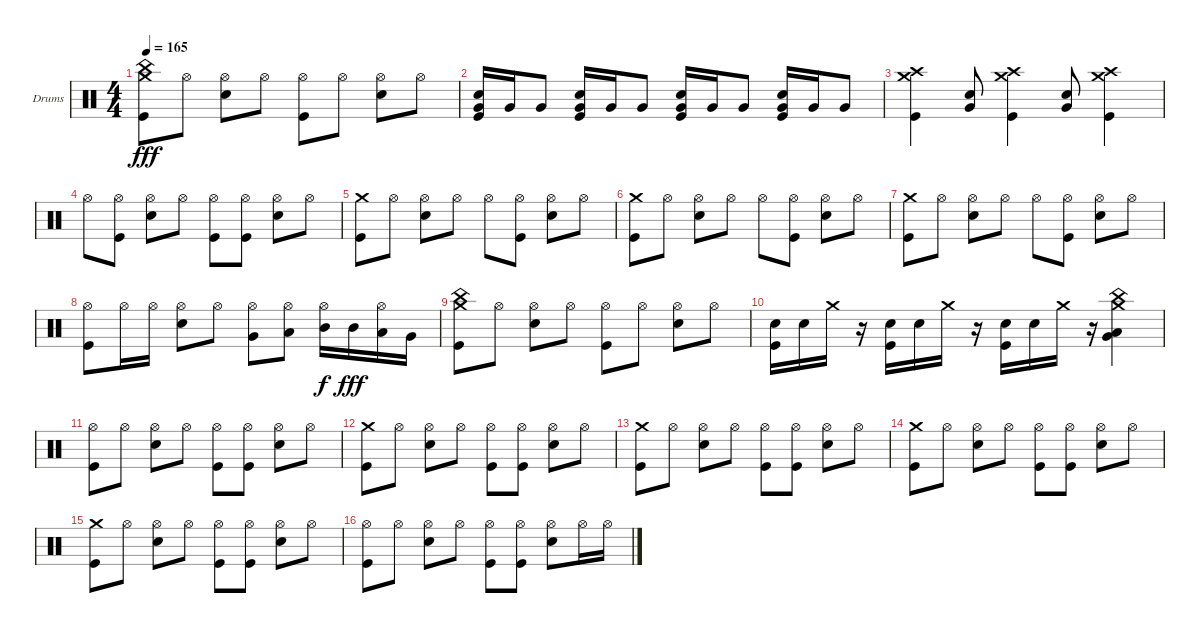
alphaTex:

\defaultSystemsLayout 4
\bracketExtendMode groupsimilarinstruments
\firstSystemTrackNameOrientation horizontal
\otherSystemsTrackNameOrientation horizontal
\track ("Drumkit" "Drums") {instrument percussion}
\staff {score}
\articulation defaults
\ts (4 4)
\tempo 165
\clef neutral
\ks c
("China (hit)" "Crash medium (hit)" "Kick (hit)").8{dy fff} "Hi-Hat (open)".8 ("Hi-Hat (open)" "Snare (hit) 2").8 "Hi-Hat (open)".8 ("Hi-Hat (open)" "Kick (hit)").8 "Hi-Hat (open)".8 ("Hi-Hat (open)" "Snare (hit) 2").8 "Hi-Hat (open)".8 |
("Very Low Tom (hit)" "Snare (hit) 2" "Kick (hit)").16 "Very Low Tom (hit)".16 "Very Low Tom (hit)".8 ("Very Low Tom (hit)" "Snare (hit) 2" "Kick (hit)").16 "Very Low Tom (hit)".16 "Very Low Tom (hit)".8 ("Very Low Tom (hit)" "Snare (hit) 2" "Kick (hit)").16 "Very Low Tom (hit)".16 "Very Low Tom (hit)".8 ("Very Low Tom (hit)" "Snare (hit) 2" "Kick (hit)").16 "Very Low Tom (hit)".16 "Very Low Tom (hit)".8 |
("Crash high (hit)" "Crash medium (hit)" "Kick (hit)").4 ("Snare (hit) 2" "Very Low Tom (hit)").8 ("Crash high (hit)" "Crash medium (hit)" "Kick (hit)").4 ("Snare (hit) 2" "Very Low Tom (hit)").8 ("Crash high (hit)" "Crash medium (hit)" "Kick (hit)").4 |
"Hi-Hat (open)".8 ("Hi-Hat (open)" "Kick (hit)").8 ("Hi-Hat (open)" "Snare (hit) 2").8 "Hi-Hat (open)".8 ("Hi-Hat (open)" "Kick (hit)").8 ("Hi-Hat (open)" "Kick (hit)").8 ("Hi-Hat (open)" "Snare (hit) 2").8 "Hi-Hat (open)".8 |
("Crash medium (hit)" "Kick (hit)").8 "Hi-Hat (open)".8 ("Hi-Hat (open)" "Snare (hit) 2").8 "Hi-Hat (open)".8 "Hi-Hat (open)".8 ("Hi-Hat (open)" "Kick (hit)").8 ("Hi-Hat (open)" "Snare (hit) 2").8 "Hi-Hat (open)".8 |
("Crash medium (hit)" "Kick (hit)").8 "Hi-Hat (open)".8 ("Hi-Hat (open)" "Snare (hit) 2").8 "Hi-Hat (open)".8 "Hi-Hat (open)".8 ("Hi-Hat (open)" "Kick (hit)").8 ("Hi-Hat (open)" "Snare (hit) 2").8 "Hi-Hat (open)".8 |
("Crash medium (hit)" "Kick (hit)").8 "Hi-Hat (open)".8 ("Hi-Hat (open)" "Snare (hit) 2").8 "Hi-Hat (open)".8 "Hi-Hat (open)".8 ("Hi-Hat (open)" "Kick (hit)").8 ("Hi-Hat (open)" "Snare (hit) 2").8 "Hi-Hat (open)".8 |
("Hi-Hat (open)" "Kick (hit)").8 "Hi-Hat (open)".16 "Hi-Hat (open)".16 ("Hi-Hat (open)" "Snare (hit) 2").8 "Hi-Hat (open)".8 ("Hi-Hat (open)" "Very Low Tom (hit)").8 ("Hi-Hat (open)" "Low Tom (hit)").8 ("Hi-Hat (open)" "Mid Tom (hit)").16{dy f} "Mid Tom (hit)".16{dy fff} ("Hi-Hat (open)" "Low Tom (hit)").16 "Very Low Tom (hit)".16 |
("China (hit)" "Crash medium (hit)" "Kick (hit)").8 "Hi-Hat (open)".8 ("Hi-Hat (open)" "Snare (hit) 2").8 "Hi-Hat (open)".8 ("Hi-Hat (open)" "Kick (hit)").8 "Hi-Hat (open)".8 ("Hi-Hat (open)" "Snare (hit) 2").8 "Hi-Hat (open)".8 |
("Snare (hit) 2" "Kick (hit)").16 "Snare (hit) 2".16 "Crash medium (hit)".16 r.16 ("Snare (hit) 2" "Kick (hit)").16 "Snare (hit) 2".16 "Crash medium (hit)".16 r.16 ("Snare (hit) 2" "Kick (hit)").16 "Snare (hit) 2".16 "Crash medium (hit)".16 r.16 ("Crash medium (hit)" "China (hit)" "Low Tom (hit)" "Very Low Tom (hit)").4 |
("Hi-Hat (open)" "Kick (hit)").8 "Hi-Hat (open)".8 ("Hi-Hat (open)" "Snare (hit) 2").8 "Hi-Hat (open)".8 ("Hi-Hat (open)" "Kick (hit)").8 ("Hi-Hat (open)" "Kick (hit)").8 ("Hi-Hat (open)" "Snare (hit) 2").8 "Hi-Hat (open)".8 |
("Crash medium (hit)" "Kick (hit)").8 "Hi-Hat (open)".8 ("Hi-Hat (open)" "Snare (hit) 2").8 "Hi-Hat (open)".8 ("Hi-Hat (open)" "Kick (hit)").8 ("Hi-Hat (open)" "Kick (hit)").8 ("Hi-Hat (open)" "Snare (hit) 2").8 "Hi-Hat (open)".8 |
("Crash medium (hit)" "Kick (hit)").8 "Hi-Hat (open)".8 ("Hi-Hat (open)" "Snare (hit) 2").8 "Hi-Hat (open)".8 ("Hi-Hat (open)" "Kick (hit)").8 ("Hi-Hat (open)" "Kick (hit)").8 ("Hi-Hat (open)" "Snare (hit) 2").8 "Hi-Hat (open)".8 |
("Crash medium (hit)" "Kick (hit)").8 "Hi-Hat (open)".8 ("Hi-Hat (open)" "Snare (hit) 2").8 "Hi-Hat (open)".8 ("Hi-Hat (open)" "Kick (hit)").8 ("Hi-Hat (open)" "Kick (hit)").8 ("Hi-Hat (open)" "Snare (hit) 2").8 "Hi-Hat (open)".8 |
("Crash medium (hit)" "Kick (hit)").8 "Hi-Hat (open)".8 ("Hi-Hat (open)" "Snare (hit) 2").8 "Hi-Hat (open)".8 ("Hi-Hat (open)" "Kick (hit)").8 ("Hi-Hat (open)" "Kick (hit)").8 ("Hi-Hat (open)" "Snare (hit) 2").8 "Hi-Hat (open)".8 |
("Hi-Hat (open)" "Kick (hit)").8 "Hi-Hat (open)".8 ("Hi-Hat (open)" "Snare (hit) 2").8 "Hi-Hat (open)".8 ("Hi-Hat (open)" "Kick (hit)").8 ("Hi-Hat (open)" "Kick (hit)").8 ("Hi-Hat (open)" "Snare (hit) 2").8 "Hi-Hat (open)".16 "Hi-Hat (open)".16
